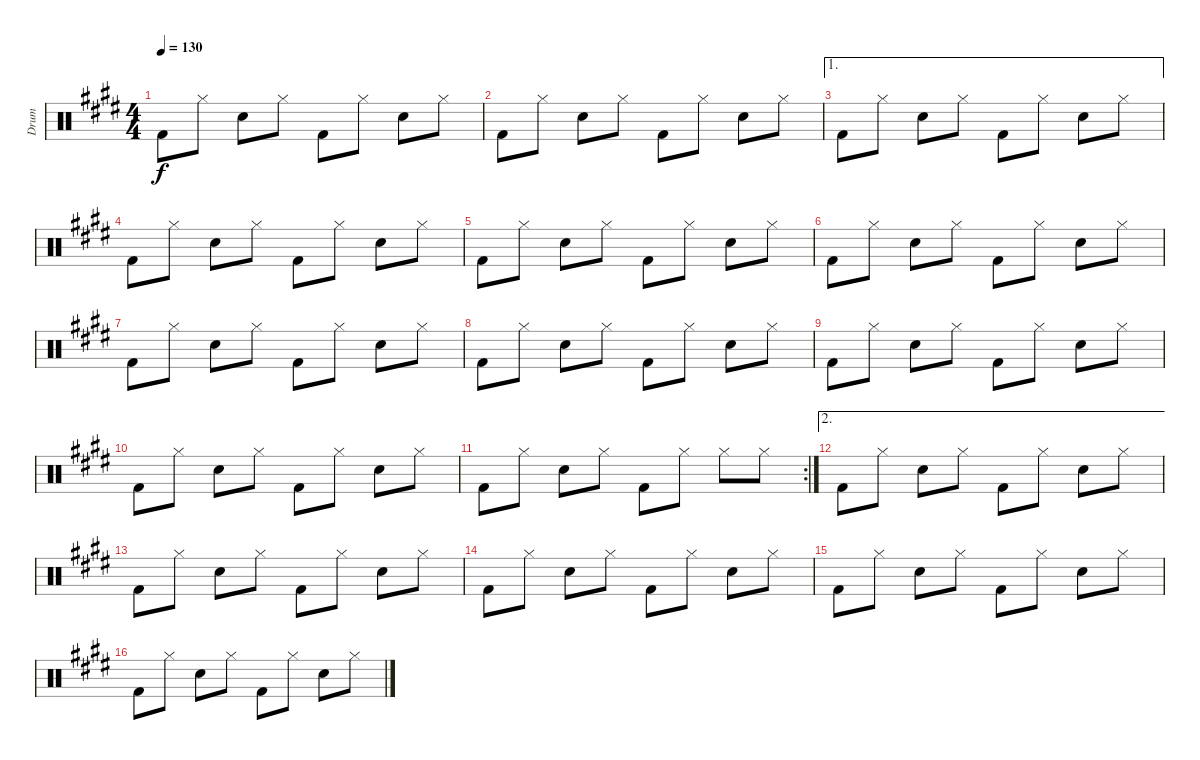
\track ("Drum" "Drum") {instrument percussion}
\staff {score}
\articulation defaults
\ts (4 4)
\tempo 130
\clef neutral
\ks c#minor "Kick (hit) 2".8{dy f} "Hi-Hat (closed)".8 "Electric Snare (hit)".8 "Hi-Hat (closed)".8 "Kick (hit) 2".8 "Hi-Hat (closed)".8 "Electric Snare (hit)".8 "Hi-Hat (closed)".8
|
"Kick (hit) 2".8 "Hi-Hat (closed)".8 "Electric Snare (hit)".8 "Hi-Hat (closed)".8 "Kick (hit) 2".8 "Hi-Hat (closed)".8 "Electric Snare (hit)".8 "Hi-Hat (closed)".8 |
\ae 1 "Kick (hit) 2".8 "Hi-Hat (closed)".8 "Electric Snare (hit)".8 "Hi-Hat (closed)".8 "Kick (hit) 2".8 "Hi-Hat (closed)".8 "Electric Snare (hit)".8 "Hi-Hat (closed)".8
|
"Kick (hit) 2".8 "Hi-Hat (closed)".8 "Electric Snare (hit)".8 "Hi-Hat (closed)".8 "Kick (hit) 2".8 "Hi-Hat (closed)".8 "Electric Snare (hit)".8 "Hi-Hat (closed)".8 |
"Kick (hit) 2".8 "Hi-Hat (closed)".8 "Electric Snare (hit)".8 "Hi-Hat (closed)".8 "Kick (hit) 2".8 "Hi-Hat (closed)".8 "Electric Snare (hit)".8 "Hi-Hat (closed)".8 |
"Kick (hit) 2".8 "Hi-Hat (closed)".8 "Electric Snare (hit)".8 "Hi-Hat (closed)".8 "Kick (hit) 2".8 "Hi-Hat (closed)".8 "Electric Snare (hit)".8 "Hi-Hat (closed)".8 |
"Kick (hit) 2".8 "Hi-Hat (closed)".8 "Electric Snare (hit)".8 "Hi-Hat (closed)".8 "Kick (hit) 2".8 "Hi-Hat (closed)".8 "Electric Snare (hit)".8 "Hi-Hat (closed)".8 |
"Kick (hit) 2".8 "Hi-Hat (closed)".8 "Electric Snare (hit)".8 "Hi-Hat (closed)".8 "Kick (hit) 2".8 "Hi-Hat (closed)".8 "Electric Snare (hit)".8 "Hi-Hat (closed)".8 |
"Kick (hit) 2".8 "Hi-Hat (closed)".8 "Electric Snare (hit)".8 "Hi-Hat (closed)".8 "Kick (hit) 2".8 "Hi-Hat (closed)".8 "Electric Snare (hit)".8 "Hi-Hat (closed)".8 |
"Kick (hit) 2".8 "Hi-Hat (closed)".8 "Electric Snare (hit)".8 "Hi-Hat (closed)".8 "Kick (hit) 2".8 "Hi-Hat (closed)".8 "Electric Snare (hit)".8 "Hi-Hat (closed)".8 |
\rc 2 "Kick (hit) 2".8 "Hi-Hat (closed)".8 "Electric Snare (hit)".8 "Hi-Hat (closed)".8 "Kick (hit) 2".8 "Hi-Hat (closed)".8 "Hi-Hat (closed)".8 "Hi-Hat (closed)".8
|
\ae 2 "Kick (hit) 2".8 "Hi-Hat (closed)".8 "Electric Snare (hit)".8 "Hi-Hat (closed)".8 "Kick (hit) 2".8 "Hi-Hat (closed)".8 "Electric Snare (hit)".8 "Hi-Hat (closed)".8
|
"Kick (hit) 2".8 "Hi-Hat (closed)".8 "Electric Snare (hit)".8 "Hi-Hat (closed)".8 "Kick (hit) 2".8 "Hi-Hat (closed)".8 "Electric Snare (hit)".8 "Hi-Hat (closed)".8 |
"Kick (hit) 2".8 "Hi-Hat (closed)".8 "Electric Snare (hit)".8 "Hi-Hat (closed)".8 "Kick (hit) 2".8 "Hi-Hat (closed)".8 "Electric Snare (hit)".8 "Hi-Hat (closed)".8 |
"Kick (hit) 2".8 "Hi-Hat (closed)".8 "Electric Snare (hit)".8 "Hi-Hat (closed)".8 "Kick (hit) 2".8 "Hi-Hat (closed)".8 "Electric Snare (hit)".8 "Hi-Hat (closed)".8 |
"Kick (hit) 2".8 "Hi-Hat (closed)".8 "Electric Snare (hit)".8 "Hi-Hat (closed)".8 "Kick (hit) 2".8 "Hi-Hat (closed)".8 "Electric Snare (hit)".8 "Hi-Hat (closed)".8
